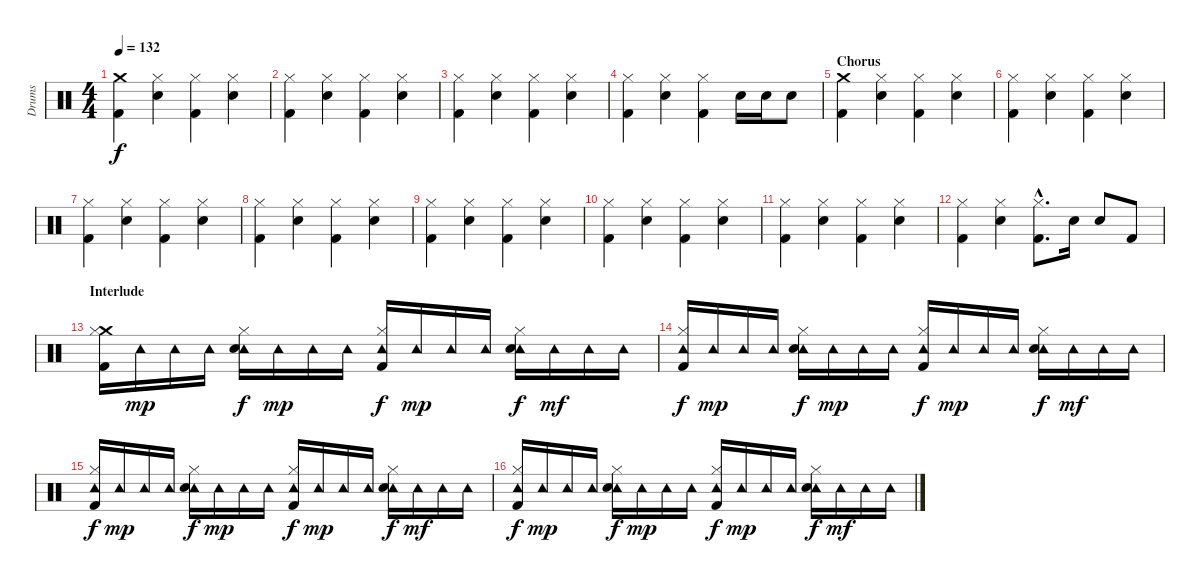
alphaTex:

\track ("Drums" "Drums") {instrument percussion}
\staff {score}
\articulation defaults
\ts (4 4)
\tempo 132
\clef neutral
\ks c
("Crash medium (hit)" "Kick (hit) 2").4{dy f} ("Hi-Hat (closed)" "Electric Snare (hit)").4 ("Hi-Hat (closed)" "Kick (hit) 2").4 ("Hi-Hat (closed)" "Electric Snare (hit)").4 |
("Hi-Hat (closed)" "Kick (hit) 2").4 ("Hi-Hat (closed)" "Electric Snare (hit)").4 ("Hi-Hat (closed)" "Kick (hit) 2").4 ("Hi-Hat (closed)" "Electric Snare (hit)").4 |
("Hi-Hat (closed)" "Kick (hit) 2").4 ("Hi-Hat (closed)" "Electric Snare (hit)").4 ("Hi-Hat (closed)" "Kick (hit) 2").4 ("Hi-Hat (closed)" "Electric Snare (hit)").4 |
("Hi-Hat (closed)" "Kick (hit) 2").4 ("Hi-Hat (closed)" "Electric Snare (hit)").4 ("Hi-Hat (closed)" "Kick (hit) 2").4 "Electric Snare (hit)".16 "Electric Snare (hit)".16 "Electric Snare (hit)".8 |
\section ("" "Chorus")
("Crash medium (hit)" "Kick (hit) 2").4 ("Hi-Hat (closed)" "Electric Snare (hit)").4 ("Hi-Hat (closed)" "Kick (hit) 2").4 ("Hi-Hat (closed)" "Electric Snare (hit)").4 |
("Hi-Hat (closed)" "Kick (hit) 2").4 ("Hi-Hat (closed)" "Electric Snare (hit)").4 ("Hi-Hat (closed)" "Kick (hit) 2").4 ("Hi-Hat (closed)" "Electric Snare (hit)").4 |
("Hi-Hat (closed)" "Kick (hit) 2").4 ("Hi-Hat (closed)" "Electric Snare (hit)").4 ("Hi-Hat (closed)" "Kick (hit) 2").4 ("Hi-Hat (closed)" "Electric Snare (hit)").4 |
("Hi-Hat (closed)" "Kick (hit) 2").4 ("Hi-Hat (closed)" "Electric Snare (hit)").4 ("Hi-Hat (closed)" "Kick (hit) 2").4 ("Hi-Hat (closed)" "Electric Snare (hit)").4 |
("Hi-Hat (closed)" "Kick (hit) 2").4 ("Hi-Hat (closed)" "Electric Snare (hit)").4 ("Hi-Hat (closed)" "Kick (hit) 2").4 ("Hi-Hat (closed)" "Electric Snare (hit)").4 |
("Hi-Hat (closed)" "Kick (hit) 2").4 ("Hi-Hat (closed)" "Electric Snare (hit)").4 ("Hi-Hat (closed)" "Kick (hit) 2").4 ("Hi-Hat (closed)" "Electric Snare (hit)").4 |
("Hi-Hat (closed)" "Kick (hit) 2").4 ("Hi-Hat (closed)" "Electric Snare (hit)").4 ("Hi-Hat (closed)" "Kick (hit) 2").4 ("Hi-Hat (closed)" "Electric Snare (hit)").4 |
("Hi-Hat (closed)" "Kick (hit) 2").4 ("Hi-Hat (closed)" "Electric Snare (hit)").4 ("Hi-Hat (closed)"{hac} "Kick (hit) 2"{hac}).8{d} "Electric Snare (hit)".16 "Electric Snare (hit)".8 "Kick (hit) 2".8 |
\section ("" "Interlude")
("Crash medium (hit)" "Hi-Hat (closed)" "Kick (hit) 2").16 "Tambourine (hit)".16{dy mp} "Tambourine (hit)".16 "Tambourine (hit)".16 ("Tambourine (hit)" "Hi-Hat (closed)" "Snare (hit) 2").16{dy f} "Tambourine (hit)".16{dy mp} "Tambourine (hit)".16 "Tambourine (hit)".16 ("Tambourine (hit)" "Hi-Hat (closed)" "Kick (hit) 2").16{dy f} "Tambourine (hit)".16{dy mp} "Tambourine (hit)".16 "Tambourine (hit)".16 ("Tambourine (hit)" "Hi-Hat (closed)" "Snare (hit) 2").16{dy f} "Tambourine (hit)".16{dy mf} "Tambourine (hit)".16 "Tambourine (hit)".16 |
("Tambourine (hit)" "Hi-Hat (closed)" "Kick (hit) 2").16{dy f} "Tambourine (hit)".16{dy mp} "Tambourine (hit)".16 "Tambourine (hit)".16 ("Tambourine (hit)" "Hi-Hat (closed)" "Snare (hit) 2").16{dy f} "Tambourine (hit)".16{dy mp} "Tambourine (hit)".16 "Tambourine (hit)".16 ("Tambourine (hit)" "Hi-Hat (closed)" "Kick (hit) 2").16{dy f} "Tambourine (hit)".16{dy mp} "Tambourine (hit)".16 "Tambourine (hit)".16 ("Tambourine (hit)" "Hi-Hat (closed)" "Snare (hit) 2").16{dy f} "Tambourine (hit)".16{dy mf} "Tambourine (hit)".16 "Tambourine (hit)".16 |
("Tambourine (hit)" "Hi-Hat (closed)" "Kick (hit) 2").16{dy f} "Tambourine (hit)".16{dy mp} "Tambourine (hit)".16 "Tambourine (hit)".16 ("Tambourine (hit)" "Hi-Hat (closed)" "Snare (hit) 2").16{dy f} "Tambourine (hit)".16{dy mp} "Tambourine (hit)".16 "Tambourine (hit)".16 ("Tambourine (hit)" "Hi-Hat (closed)" "Kick (hit) 2").16{dy f} "Tambourine (hit)".16{dy mp} "Tambourine (hit)".16 "Tambourine (hit)".16 ("Tambourine (hit)" "Hi-Hat (closed)" "Snare (hit) 2").16{dy f} "Tambourine (hit)".16{dy mf} "Tambourine (hit)".16 "Tambourine (hit)".16 |
("Tambourine (hit)" "Hi-Hat (closed)" "Kick (hit) 2").16{dy f} "Tambourine (hit)".16{dy mp} "Tambourine (hit)".16 "Tambourine (hit)".16 ("Tambourine (hit)" "Hi-Hat (closed)" "Snare (hit) 2").16{dy f} "Tambourine (hit)".16{dy mp} "Tambourine (hit)".16 "Tambourine (hit)".16 ("Tambourine (hit)" "Hi-Hat (closed)" "Kick (hit) 2").16{dy f} "Tambourine (hit)".16{dy mp} "Tambourine (hit)".16 "Tambourine (hit)".16 ("Tambourine (hit)" "Hi-Hat (closed)" "Snare (hit) 2").16{dy f} "Tambourine (hit)".16{dy mf} "Tambourine (hit)".16 "Tambourine (hit)".16
